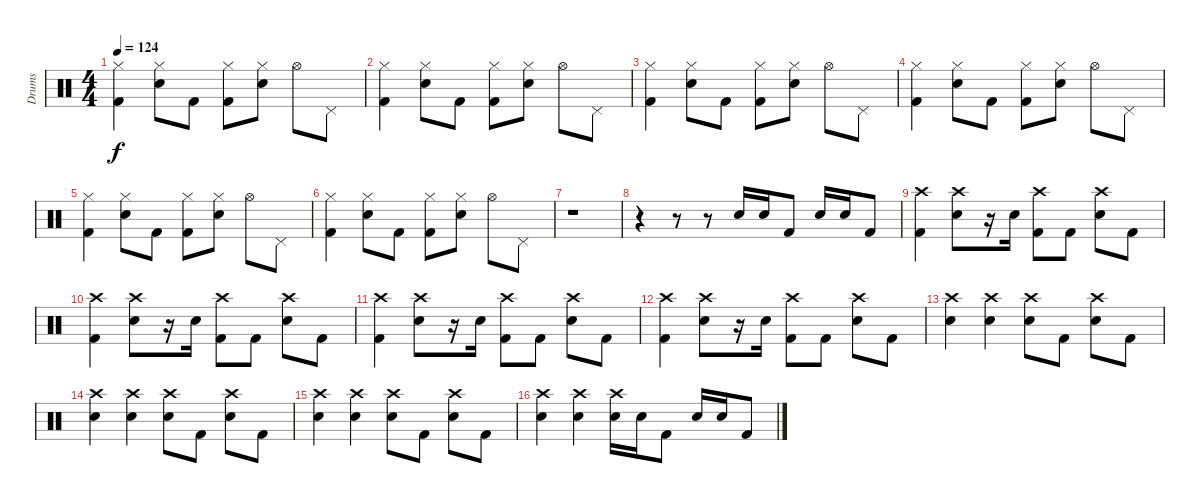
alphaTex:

\track ("Drums" "Drums") {instrument percussion}
\staff {score}
\articulation defaults
\ts (4 4)
\tempo 124
\clef neutral
\ks c
("Hi-Hat (closed)" "Kick (hit) 2").4{dy f} ("Hi-Hat (closed)" "Electric Snare (hit)").8 "Kick (hit) 2".8 ("Hi-Hat (closed)" "Kick (hit) 2").8 ("Hi-Hat (closed)" "Electric Snare (hit)").8 "Hi-Hat (open)".8 "Pedal Hi-Hat (hit)".8 |
("Hi-Hat (closed)" "Kick (hit) 2").4 ("Hi-Hat (closed)" "Electric Snare (hit)").8 "Kick (hit) 2".8 ("Hi-Hat (closed)" "Kick (hit) 2").8 ("Hi-Hat (closed)" "Electric Snare (hit)").8 "Hi-Hat (open)".8 "Pedal Hi-Hat (hit)".8 |
("Hi-Hat (closed)" "Kick (hit) 2").4 ("Hi-Hat (closed)" "Electric Snare (hit)").8 "Kick (hit) 2".8 ("Hi-Hat (closed)" "Kick (hit) 2").8 ("Hi-Hat (closed)" "Electric Snare (hit)").8 "Hi-Hat (open)".8 "Pedal Hi-Hat (hit)".8 |
("Hi-Hat (closed)" "Kick (hit) 2").4 ("Hi-Hat (closed)" "Electric Snare (hit)").8 "Kick (hit) 2".8 ("Hi-Hat (closed)" "Kick (hit) 2").8 ("Hi-Hat (closed)" "Electric Snare (hit)").8 "Hi-Hat (open)".8 "Pedal Hi-Hat (hit)".8 |
("Hi-Hat (closed)" "Kick (hit) 2").4 ("Hi-Hat (closed)" "Electric Snare (hit)").8 "Kick (hit) 2".8 ("Hi-Hat (closed)" "Kick (hit) 2").8 ("Hi-Hat (closed)" "Electric Snare (hit)").8 "Hi-Hat (open)".8 "Pedal Hi-Hat (hit)".8 |
("Hi-Hat (closed)" "Kick (hit) 2").4 ("Hi-Hat (closed)" "Electric Snare (hit)").8 "Kick (hit) 2".8 ("Hi-Hat (closed)" "Kick (hit) 2").8 ("Hi-Hat (closed)" "Electric Snare (hit)").8 "Hi-Hat (open)".8 "Pedal Hi-Hat (hit)".8 |
r.1 |
r.4 r.8 r.8 "Electric Snare (hit)".16 "Electric Snare (hit)".16 "Kick (hit) 2".8 "Electric Snare (hit)".16 "Electric Snare (hit)".16 "Kick (hit) 2".8 |
("Crash high (hit)" "Kick (hit) 2").4 ("Crash high (hit)" "Electric Snare (hit)").8 r.16 "Electric Snare (hit)".16 ("Crash high (hit)" "Kick (hit) 2").8 "Kick (hit) 2".8 ("Crash high (hit)" "Electric Snare (hit)").8 "Kick (hit) 2".8 |
("Crash high (hit)" "Kick (hit) 2").4 ("Crash high (hit)" "Electric Snare (hit)").8 r.16 "Electric Snare (hit)".16 ("Crash high (hit)" "Kick (hit) 2").8 "Kick (hit) 2".8 ("Crash high (hit)" "Electric Snare (hit)").8 "Kick (hit) 2".8 |
("Crash high (hit)" "Kick (hit) 2").4 ("Crash high (hit)" "Electric Snare (hit)").8 r.16 "Electric Snare (hit)".16 ("Crash high (hit)" "Kick (hit) 2").8 "Kick (hit) 2".8 ("Crash high (hit)" "Electric Snare (hit)").8 "Kick (hit) 2".8 |
("Crash high (hit)" "Kick (hit) 2").4 ("Crash high (hit)" "Electric Snare (hit)").8 r.16 "Electric Snare (hit)".16 ("Crash high (hit)" "Kick (hit) 2").8 "Kick (hit) 2".8 ("Crash high (hit)" "Electric Snare (hit)").8 "Kick (hit) 2".8 |
("Crash high (hit)" "Electric Snare (hit)").4 ("Crash high (hit)" "Electric Snare (hit)").4 ("Crash high (hit)" "Electric Snare (hit)").8 "Kick (hit) 2".8 ("Crash high (hit)" "Electric Snare (hit)").8 "Kick (hit) 2".8 |
("Crash high (hit)" "Electric Snare (hit)").4 ("Crash high (hit)" "Electric Snare (hit)").4 ("Crash high (hit)" "Electric Snare (hit)").8 "Kick (hit) 2".8 ("Crash high (hit)" "Electric Snare (hit)").8 "Kick (hit) 2".8 |
("Crash high (hit)" "Electric Snare (hit)").4 ("Crash high (hit)" "Electric Snare (hit)").4 ("Crash high (hit)" "Electric Snare (hit)").8 "Kick (hit) 2".8 ("Crash high (hit)" "Electric Snare (hit)").8 "Kick (hit) 2".8 |
("Crash high (hit)" "Electric Snare (hit)").4 ("Crash high (hit)" "Electric Snare (hit)").4 ("Crash high (hit)" "Electric Snare (hit)").16 "Electric Snare (hit)".16 "Kick (hit) 2".8 "Electric Snare (hit)".16 "Electric Snare (hit)".16 "Kick (hit) 2".8
